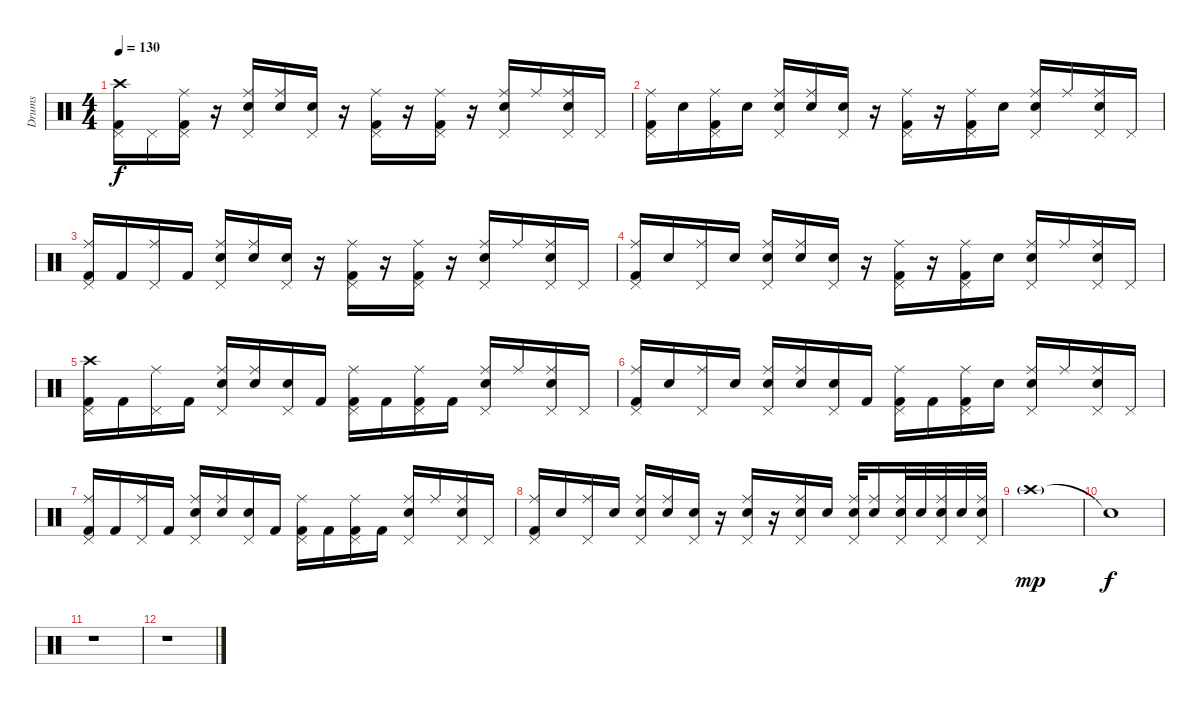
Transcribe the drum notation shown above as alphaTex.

\track ("Drums" "Drums") {instrument percussion}
\staff {score}
\articulation defaults
\ts (4 4)
\tempo 130
\clef neutral
\ks c
("Crash high (hit)" "Kick (hit) 2" "Pedal Hi-Hat (hit)").16{dy f} "Pedal Hi-Hat (hit)".16 ("Ride (middle)" "Kick (hit) 2" "Pedal Hi-Hat (hit)").16 r.16 ("Ride (middle)" "Electric Snare (hit)" "Pedal Hi-Hat (hit)").16 ("Ride (middle)" "Snare (hit) 2").16 ("Snare (hit) 2" "Pedal Hi-Hat (hit)").16 r.16 ("Ride (middle)" "Kick (hit) 2" "Pedal Hi-Hat (hit)").16 r.16 ("Ride (middle)" "Kick (hit) 2" "Pedal Hi-Hat (hit)").16 r.16 ("Ride (middle)" "Electric Snare (hit)" "Pedal Hi-Hat (hit)").16 "Ride (middle)".16 ("Ride (middle)" "Snare (hit) 2" "Pedal Hi-Hat (hit)").16 "Pedal Hi-Hat (hit)".16 |
("Ride (middle)" "Kick (hit) 2" "Pedal Hi-Hat (hit)").16 "Electric Snare (hit)".16 ("Ride (middle)" "Kick (hit) 2" "Pedal Hi-Hat (hit)").16 "Snare (hit) 2".16 ("Ride (middle)" "Electric Snare (hit)" "Pedal Hi-Hat (hit)").16 ("Ride (middle)" "Snare (hit) 2").16 ("Snare (hit) 2" "Pedal Hi-Hat (hit)").16 r.16 ("Ride (middle)" "Kick (hit) 2" "Pedal Hi-Hat (hit)").16 r.16 ("Ride (middle)" "Kick (hit) 2" "Pedal Hi-Hat (hit)").16 "Snare (hit) 2".16 ("Ride (middle)" "Electric Snare (hit)" "Pedal Hi-Hat (hit)").16 "Ride (middle)".16 ("Ride (middle)" "Snare (hit) 2" "Pedal Hi-Hat (hit)").16 "Pedal Hi-Hat (hit)".16 |
("Ride (middle)" "Kick (hit) 2" "Pedal Hi-Hat (hit)").16 "Kick (hit) 2".16 ("Ride (middle)" "Pedal Hi-Hat (hit)").16 "Kick (hit) 2".16 ("Ride (middle)" "Electric Snare (hit)" "Pedal Hi-Hat (hit)").16 ("Ride (middle)" "Snare (hit) 2").16 ("Snare (hit) 2" "Pedal Hi-Hat (hit)").16 r.16 ("Ride (middle)" "Kick (hit) 2" "Pedal Hi-Hat (hit)").16 r.16 ("Ride (middle)" "Kick (hit) 2" "Pedal Hi-Hat (hit)").16 r.16 ("Ride (middle)" "Electric Snare (hit)" "Pedal Hi-Hat (hit)").16 "Ride (middle)".16 ("Ride (middle)" "Snare (hit) 2" "Pedal Hi-Hat (hit)").16 "Pedal Hi-Hat (hit)".16 |
("Ride (middle)" "Kick (hit) 2" "Pedal Hi-Hat (hit)").16 "Electric Snare (hit)".16 ("Ride (middle)" "Pedal Hi-Hat (hit)").16 "Snare (hit) 2".16 ("Ride (middle)" "Electric Snare (hit)" "Pedal Hi-Hat (hit)").16 ("Ride (middle)" "Snare (hit) 2").16 ("Snare (hit) 2" "Pedal Hi-Hat (hit)").16 r.16 ("Ride (middle)" "Kick (hit) 2" "Pedal Hi-Hat (hit)").16 r.16 ("Ride (middle)" "Kick (hit) 2" "Pedal Hi-Hat (hit)").16 "Snare (hit) 2".16 ("Ride (middle)" "Electric Snare (hit)" "Pedal Hi-Hat (hit)").16 "Ride (middle)".16 ("Ride (middle)" "Snare (hit) 2" "Pedal Hi-Hat (hit)").16 "Pedal Hi-Hat (hit)".16 |
("Crash high (hit)" "Kick (hit) 2" "Pedal Hi-Hat (hit)").16 "Kick (hit) 2".16 ("Ride (middle)" "Pedal Hi-Hat (hit)").16 "Kick (hit) 2".16 ("Ride (middle)" "Electric Snare (hit)" "Pedal Hi-Hat (hit)").16 ("Ride (middle)" "Snare (hit) 2").16 ("Snare (hit) 2" "Pedal Hi-Hat (hit)").16 "Kick (hit) 2".16 ("Ride (middle)" "Kick (hit) 2" "Pedal Hi-Hat (hit)").16 "Kick (hit) 2".16 ("Ride (middle)" "Kick (hit) 2" "Pedal Hi-Hat (hit)").16 "Kick (hit) 2".16 ("Ride (middle)" "Electric Snare (hit)" "Pedal Hi-Hat (hit)").16 "Ride (middle)".16 ("Ride (middle)" "Snare (hit) 2" "Pedal Hi-Hat (hit)").16 "Pedal Hi-Hat (hit)".16 |
("Ride (middle)" "Kick (hit) 2" "Pedal Hi-Hat (hit)").16 "Electric Snare (hit)".16 ("Ride (middle)" "Pedal Hi-Hat (hit)").16 "Snare (hit) 2".16 ("Ride (middle)" "Electric Snare (hit)" "Pedal Hi-Hat (hit)").16 ("Ride (middle)" "Snare (hit) 2").16 ("Snare (hit) 2" "Pedal Hi-Hat (hit)").16 "Kick (hit) 2".16 ("Ride (middle)" "Kick (hit) 2" "Pedal Hi-Hat (hit)").16 "Kick (hit) 2".16 ("Ride (middle)" "Kick (hit) 2" "Pedal Hi-Hat (hit)").16 "Snare (hit) 2".16 ("Ride (middle)" "Electric Snare (hit)" "Pedal Hi-Hat (hit)").16 "Ride (middle)".16 ("Ride (middle)" "Snare (hit) 2" "Pedal Hi-Hat (hit)").16 "Pedal Hi-Hat (hit)".16 |
("Ride (middle)" "Kick (hit) 2" "Pedal Hi-Hat (hit)").16 "Kick (hit) 2".16 ("Ride (middle)" "Pedal Hi-Hat (hit)").16 "Kick (hit) 2".16 ("Ride (middle)" "Electric Snare (hit)" "Pedal Hi-Hat (hit)").16 ("Ride (middle)" "Snare (hit) 2").16 ("Snare (hit) 2" "Pedal Hi-Hat (hit)").16 "Kick (hit) 2".16 ("Ride (middle)" "Kick (hit) 2" "Pedal Hi-Hat (hit)").16 "Kick (hit) 2".16 ("Ride (middle)" "Kick (hit) 2" "Pedal Hi-Hat (hit)").16 "Kick (hit) 2".16 ("Ride (middle)" "Electric Snare (hit)" "Pedal Hi-Hat (hit)").16 "Ride (middle)".16 ("Ride (middle)" "Snare (hit) 2" "Pedal Hi-Hat (hit)").16 "Pedal Hi-Hat (hit)".16 |
("Ride (middle)" "Kick (hit) 2" "Pedal Hi-Hat (hit)").16 "Electric Snare (hit)".16 ("Ride (middle)" "Pedal Hi-Hat (hit)").16 "Snare (hit) 2".16 ("Ride (middle)" "Electric Snare (hit)" "Pedal Hi-Hat (hit)").16 ("Ride (middle)" "Snare (hit) 2").16 ("Snare (hit) 2" "Pedal Hi-Hat (hit)").16 r.16 ("Ride (middle)" "Electric Snare (hit)" "Pedal Hi-Hat (hit)").16 r.16 ("Ride (middle)" "Electric Snare (hit)" "Pedal Hi-Hat (hit)").16 "Electric Snare (hit)".16 ("Ride (middle)" "Electric Snare (hit)" "Pedal Hi-Hat (hit)").32 ("Ride (middle)" "Electric Snare (hit)").16 ("Ride (middle)" "Electric Snare (hit)" "Pedal Hi-Hat (hit)").32 "Electric Snare (hit)".32 ("Ride (middle)" "Electric Snare (hit)" "Pedal Hi-Hat (hit)").32 "Electric Snare (hit)".32 ("Ride (middle)" "Electric Snare (hit)" "Pedal Hi-Hat (hit)").32 |
"Crash high (hit)"{g}.1{dy mp} |
"Snare (hit)"{t}.1{dy f} |
r.1 |
r.1
